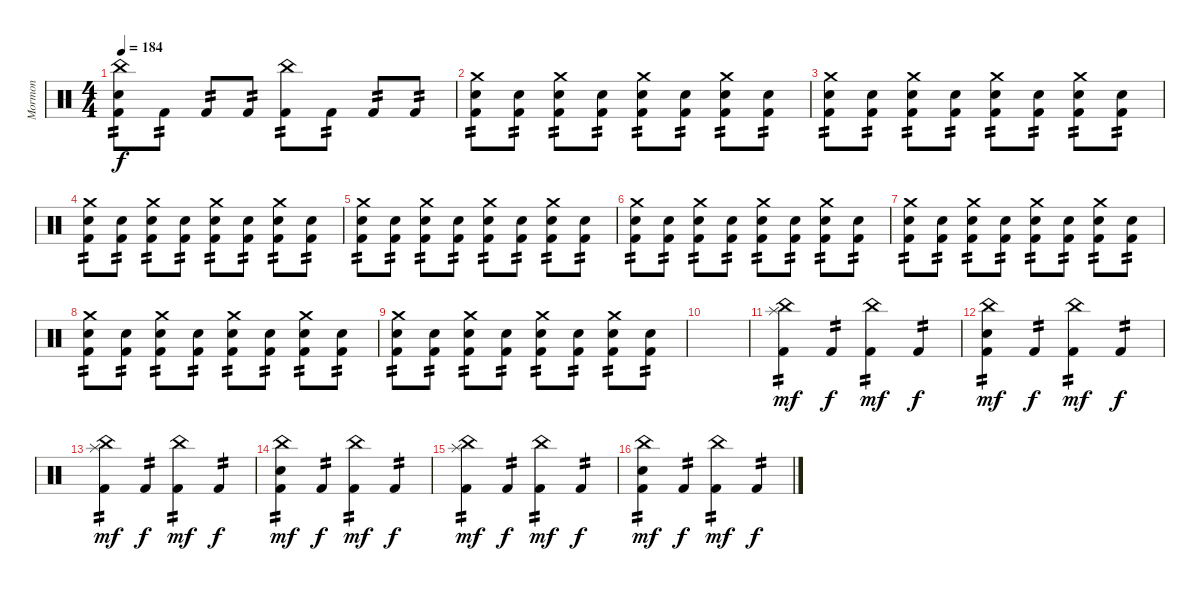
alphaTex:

\track ("Mormon" "Mormon") {solo instrument percussion}
\staff {score}
\articulation defaults
\ts (4 4)
\tempo 184
\clef neutral
\ks c
("China (hit)" "Snare (hit) 2" "Kick (hit) 2").8{tp 2 dy f} "Kick (hit) 2".8{tp 2} "Kick (hit) 2".8{tp 2} "Kick (hit) 2".8{tp 2} ("China (hit)" "Kick (hit) 2").8{tp 2} "Kick (hit) 2".8{tp 2} "Kick (hit) 2".8{tp 2} "Kick (hit) 2".8{tp 2} |
("Crash medium (hit)" "Snare (hit) 2" "Kick (hit) 2").8{tp 2} ("Snare (hit) 2" "Kick (hit) 2").8{tp 2} ("Crash medium (hit)" "Snare (hit) 2" "Kick (hit) 2").8{tp 2} ("Snare (hit) 2" "Kick (hit) 2").8{tp 2} ("Crash medium (hit)" "Snare (hit) 2" "Kick (hit) 2").8{tp 2} ("Snare (hit) 2" "Kick (hit) 2").8{tp 2} ("Crash medium (hit)" "Snare (hit) 2" "Kick (hit) 2").8{tp 2} ("Snare (hit) 2" "Kick (hit) 2").8{tp 2} |
("Crash medium (hit)" "Snare (hit) 2" "Kick (hit) 2").8{tp 2} ("Snare (hit) 2" "Kick (hit) 2").8{tp 2} ("Crash medium (hit)" "Snare (hit) 2" "Kick (hit) 2").8{tp 2} ("Snare (hit) 2" "Kick (hit) 2").8{tp 2} ("Crash medium (hit)" "Snare (hit) 2" "Kick (hit) 2").8{tp 2} ("Snare (hit) 2" "Kick (hit) 2").8{tp 2} ("Crash medium (hit)" "Snare (hit) 2" "Kick (hit) 2").8{tp 2} ("Snare (hit) 2" "Kick (hit) 2").8{tp 2} |
("Crash medium (hit)" "Snare (hit) 2" "Kick (hit) 2").8{tp 2} ("Snare (hit) 2" "Kick (hit) 2").8{tp 2} ("Crash medium (hit)" "Snare (hit) 2" "Kick (hit) 2").8{tp 2} ("Snare (hit) 2" "Kick (hit) 2").8{tp 2} ("Crash medium (hit)" "Snare (hit) 2" "Kick (hit) 2").8{tp 2} ("Snare (hit) 2" "Kick (hit) 2").8{tp 2} ("Crash medium (hit)" "Snare (hit) 2" "Kick (hit) 2").8{tp 2} ("Snare (hit) 2" "Kick (hit) 2").8{tp 2} |
("Crash medium (hit)" "Snare (hit) 2" "Kick (hit) 2").8{tp 2} ("Snare (hit) 2" "Kick (hit) 2").8{tp 2} ("Crash medium (hit)" "Snare (hit) 2" "Kick (hit) 2").8{tp 2} ("Snare (hit) 2" "Kick (hit) 2").8{tp 2} ("Crash medium (hit)" "Snare (hit) 2" "Kick (hit) 2").8{tp 2} ("Snare (hit) 2" "Kick (hit) 2").8{tp 2} ("Crash medium (hit)" "Snare (hit) 2" "Kick (hit) 2").8{tp 2} ("Snare (hit) 2" "Kick (hit) 2").8{tp 2} |
("Crash medium (hit)" "Snare (hit) 2" "Kick (hit) 2").8{tp 2} ("Snare (hit) 2" "Kick (hit) 2").8{tp 2} ("Crash medium (hit)" "Snare (hit) 2" "Kick (hit) 2").8{tp 2} ("Snare (hit) 2" "Kick (hit) 2").8{tp 2} ("Crash medium (hit)" "Snare (hit) 2" "Kick (hit) 2").8{tp 2} ("Snare (hit) 2" "Kick (hit) 2").8{tp 2} ("Crash medium (hit)" "Snare (hit) 2" "Kick (hit) 2").8{tp 2} ("Snare (hit) 2" "Kick (hit) 2").8{tp 2} |
("Crash medium (hit)" "Snare (hit) 2" "Kick (hit) 2").8{tp 2} ("Snare (hit) 2" "Kick (hit) 2").8{tp 2} ("Crash medium (hit)" "Snare (hit) 2" "Kick (hit) 2").8{tp 2} ("Snare (hit) 2" "Kick (hit) 2").8{tp 2} ("Crash medium (hit)" "Snare (hit) 2" "Kick (hit) 2").8{tp 2} ("Snare (hit) 2" "Kick (hit) 2").8{tp 2} ("Crash medium (hit)" "Snare (hit) 2" "Kick (hit) 2").8{tp 2} ("Snare (hit) 2" "Kick (hit) 2").8{tp 2} |
("Crash medium (hit)" "Snare (hit) 2" "Kick (hit) 2").8{tp 2} ("Snare (hit) 2" "Kick (hit) 2").8{tp 2} ("Crash medium (hit)" "Snare (hit) 2" "Kick (hit) 2").8{tp 2} ("Snare (hit) 2" "Kick (hit) 2").8{tp 2} ("Crash medium (hit)" "Snare (hit) 2" "Kick (hit) 2").8{tp 2} ("Snare (hit) 2" "Kick (hit) 2").8{tp 2} ("Crash medium (hit)" "Snare (hit) 2" "Kick (hit) 2").8{tp 2} ("Snare (hit) 2" "Kick (hit) 2").8{tp 2} |
("Crash medium (hit)" "Snare (hit) 2" "Kick (hit) 2").8{tp 2} ("Snare (hit) 2" "Kick (hit) 2").8{tp 2} ("Crash medium (hit)" "Snare (hit) 2" "Kick (hit) 2").8{tp 2} ("Snare (hit) 2" "Kick (hit) 2").8{tp 2} ("Crash medium (hit)" "Snare (hit) 2" "Kick (hit) 2").8{tp 2} ("Snare (hit) 2" "Kick (hit) 2").8{tp 2} ("Crash medium (hit)" "Snare (hit) 2" "Kick (hit) 2").8{tp 2} ("Snare (hit) 2" "Kick (hit) 2").8{tp 2} |
|
("China (hit)" "Splash (hit)" "Kick (hit) 2").4{tp 2 dy mf} "Kick (hit) 2".4{tp 2 dy f} ("China (hit)" "Kick (hit) 2").4{tp 2 dy mf} "Kick (hit) 2".4{tp 2 dy f} |
("China (hit)" "Snare (hit) 2" "Kick (hit) 2").4{tp 2 dy mf} "Kick (hit) 2".4{tp 2 dy f} ("China (hit)" "Kick (hit) 2").4{tp 2 dy mf} "Kick (hit) 2".4{tp 2 dy f} |
("China (hit)" "Splash (hit)" "Kick (hit) 2").4{tp 2 dy mf} "Kick (hit) 2".4{tp 2 dy f} ("China (hit)" "Kick (hit) 2").4{tp 2 dy mf} "Kick (hit) 2".4{tp 2 dy f} |
("China (hit)" "Snare (hit) 2" "Kick (hit) 2").4{tp 2 dy mf} "Kick (hit) 2".4{tp 2 dy f} ("China (hit)" "Kick (hit) 2").4{tp 2 dy mf} "Kick (hit) 2".4{tp 2 dy f} |
("China (hit)" "Splash (hit)" "Kick (hit) 2").4{tp 2 dy mf} "Kick (hit) 2".4{tp 2 dy f} ("China (hit)" "Kick (hit) 2").4{tp 2 dy mf} "Kick (hit) 2".4{tp 2 dy f} |
("China (hit)" "Snare (hit) 2" "Kick (hit) 2").4{tp 2 dy mf} "Kick (hit) 2".4{tp 2 dy f} ("China (hit)" "Kick (hit) 2").4{tp 2 dy mf} "Kick (hit) 2".4{tp 2 dy f}
